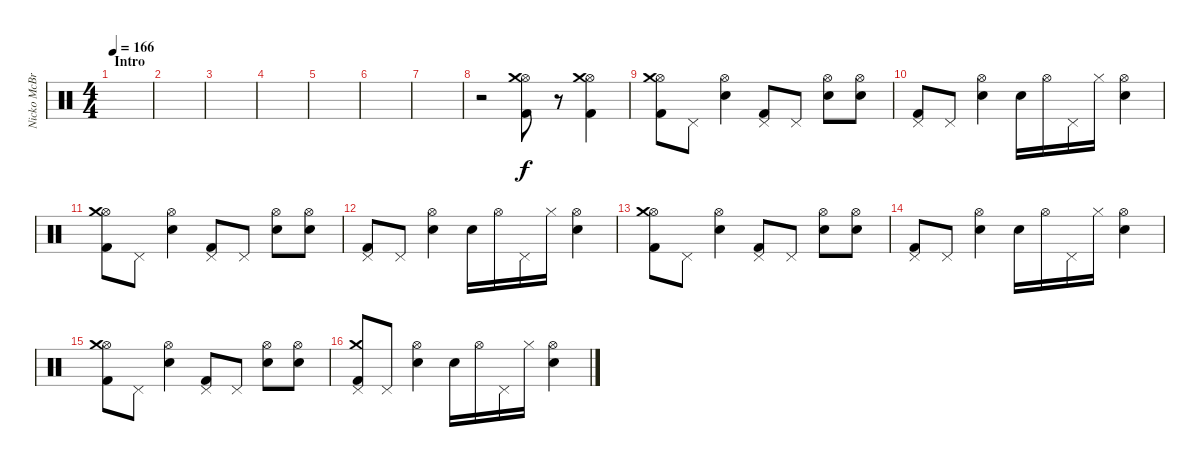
\track ("Nicko McBrain" "Nicko McBr") {instrument percussion}
\staff {score}
\articulation defaults
\ts (4 4)
\section ("" "Intro")
\tempo 166
\tempo 105
\tempo 166
\clef neutral
\ks c
|
|
|
|
|
|
|
r.2 ("Kick (hit) 2" "Hi-Hat (open)" "Crash medium (hit)").8 r.8 ("Kick (hit) 2" "Hi-Hat (open)" "Crash medium (hit)").4 |
("Kick (hit) 2" "Hi-Hat (open)" "Crash medium (hit)").8 "Pedal Hi-Hat (hit)".8 ("Snare (hit) 2" "Hi-Hat (open)").4 ("Kick (hit) 2" "Pedal Hi-Hat (hit)").8 "Pedal Hi-Hat (hit)".8 ("Snare (hit) 2" "Hi-Hat (open)").8 ("Snare (hit) 2" "Hi-Hat (open)").8 |
("Kick (hit) 2" "Pedal Hi-Hat (hit)").8 "Pedal Hi-Hat (hit)".8 ("Snare (hit) 2" "Hi-Hat (open)").4 "Snare (hit) 2".16 "Hi-Hat (open)".16 "Pedal Hi-Hat (hit)".16 "Hi-Hat (closed)".16 ("Snare (hit) 2" "Hi-Hat (open)").4 |
("Kick (hit) 2" "Hi-Hat (open)" "Crash medium (hit)").8 "Pedal Hi-Hat (hit)".8 ("Snare (hit) 2" "Hi-Hat (open)").4 ("Kick (hit) 2" "Pedal Hi-Hat (hit)").8 "Pedal Hi-Hat (hit)".8 ("Snare (hit) 2" "Hi-Hat (open)").8 ("Snare (hit) 2" "Hi-Hat (open)").8 |
("Kick (hit) 2" "Pedal Hi-Hat (hit)").8 "Pedal Hi-Hat (hit)".8 ("Snare (hit) 2" "Hi-Hat (open)").4 "Snare (hit) 2".16 "Hi-Hat (open)".16 "Pedal Hi-Hat (hit)".16 "Hi-Hat (closed)".16 ("Snare (hit) 2" "Hi-Hat (open)").4 |
("Kick (hit) 2" "Hi-Hat (open)" "Crash medium (hit)").8 "Pedal Hi-Hat (hit)".8 ("Snare (hit) 2" "Hi-Hat (open)").4 ("Kick (hit) 2" "Pedal Hi-Hat (hit)").8 "Pedal Hi-Hat (hit)".8 ("Snare (hit) 2" "Hi-Hat (open)").8 ("Snare (hit) 2" "Hi-Hat (open)").8 |
("Kick (hit) 2" "Pedal Hi-Hat (hit)").8 "Pedal Hi-Hat (hit)".8 ("Snare (hit) 2" "Hi-Hat (open)").4 "Snare (hit) 2".16 "Hi-Hat (open)".16 "Pedal Hi-Hat (hit)".16 "Hi-Hat (closed)".16 ("Snare (hit) 2" "Hi-Hat (open)").4 |
("Kick (hit) 2" "Hi-Hat (open)" "Crash medium (hit)").8 "Pedal Hi-Hat (hit)".8 ("Snare (hit) 2" "Hi-Hat (open)").4 ("Kick (hit) 2" "Pedal Hi-Hat (hit)").8 "Pedal Hi-Hat (hit)".8 ("Snare (hit) 2" "Hi-Hat (open)").8 ("Snare (hit) 2" "Hi-Hat (open)").8 |
("Kick (hit) 2" "Pedal Hi-Hat (hit)" "Crash medium (hit)").8 "Pedal Hi-Hat (hit)".8 ("Snare (hit) 2" "Hi-Hat (open)").4 "Snare (hit) 2".16 "Hi-Hat (open)".16 "Pedal Hi-Hat (hit)".16 "Hi-Hat (closed)".16 ("Snare (hit) 2" "Hi-Hat (open)").4
